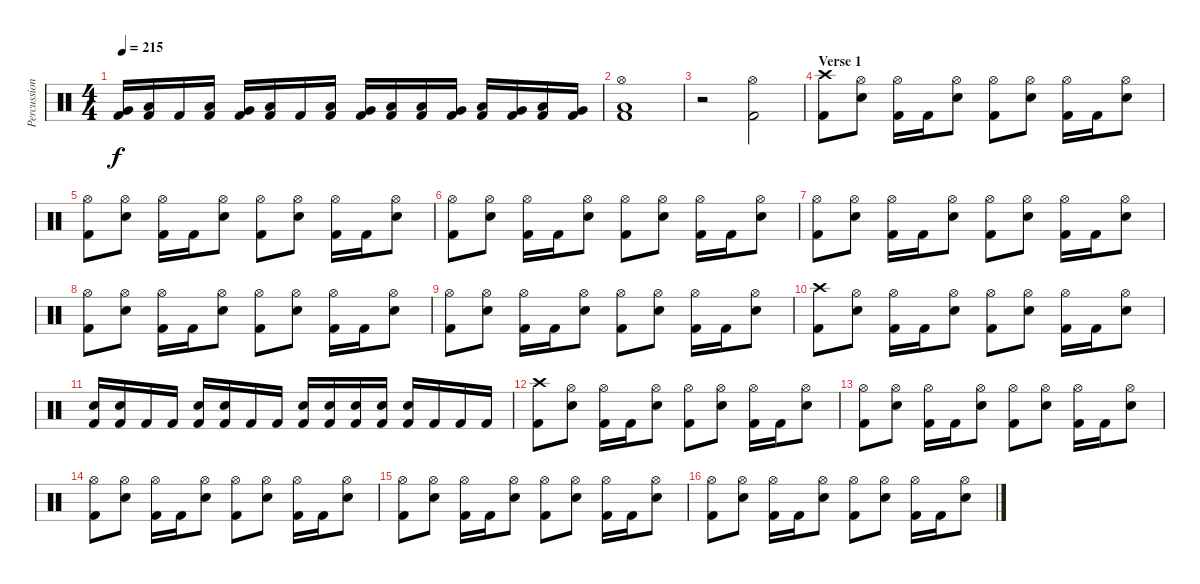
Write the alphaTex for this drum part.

\track ("Percussion" "Percussion") {instrument percussion}
\staff {score}
\articulation defaults
\ts (4 4)
\tempo 215
\clef neutral
\ks c
("Very Low Tom (hit)" "Kick (hit) 2").16{dy f} ("Low Floor Tom (hit)" "Kick (hit) 2").16 "Kick (hit) 2".16 ("Low Floor Tom (hit)" "Kick (hit) 2").16 ("Very Low Tom (hit)" "Kick (hit) 2").16 ("Low Floor Tom (hit)" "Kick (hit) 2").16 "Kick (hit) 2".16 ("Low Floor Tom (hit)" "Kick (hit) 2").16 ("Very Low Tom (hit)" "Kick (hit) 2").16 ("Low Floor Tom (hit)" "Kick (hit) 2").16 ("Low Floor Tom (hit)" "Kick (hit) 2").16 ("Very Low Tom (hit)" "Kick (hit) 2").16 ("Low Tom (hit)" "Kick (hit) 2").16 ("Very Low Tom (hit)" "Kick (hit) 2").16 ("Low Floor Tom (hit)" "Kick (hit) 2").16 ("Very Low Tom (hit)" "Kick (hit) 2").16 |
("Hi-Hat (open)" "Low Floor Tom (hit)" "Kick (hit) 2").1 |
r.2 ("Hi-Hat (open)" "Kick (hit) 2").2 |
\section ("" "Verse 1")
("Crash high (hit)" "Kick (hit) 2").8 ("Hi-Hat (open)" "Snare (hit) 2").8 ("Hi-Hat (open)" "Kick (hit) 2").16 "Kick (hit) 2".16 ("Hi-Hat (open)" "Snare (hit) 2").8 ("Hi-Hat (open)" "Kick (hit) 2").8 ("Hi-Hat (open)" "Snare (hit) 2").8 ("Hi-Hat (open)" "Kick (hit) 2").16 "Kick (hit) 2".16 ("Hi-Hat (open)" "Snare (hit) 2").8 |
("Hi-Hat (open)" "Kick (hit) 2").8 ("Hi-Hat (open)" "Snare (hit) 2").8 ("Hi-Hat (open)" "Kick (hit) 2").16 "Kick (hit) 2".16 ("Hi-Hat (open)" "Snare (hit) 2").8 ("Hi-Hat (open)" "Kick (hit) 2").8 ("Hi-Hat (open)" "Snare (hit) 2").8 ("Hi-Hat (open)" "Kick (hit) 2").16 "Kick (hit) 2".16 ("Hi-Hat (open)" "Snare (hit) 2").8 |
("Hi-Hat (open)" "Kick (hit) 2").8 ("Hi-Hat (open)" "Snare (hit) 2").8 ("Hi-Hat (open)" "Kick (hit) 2").16 "Kick (hit) 2".16 ("Hi-Hat (open)" "Snare (hit) 2").8 ("Hi-Hat (open)" "Kick (hit) 2").8 ("Hi-Hat (open)" "Snare (hit) 2").8 ("Hi-Hat (open)" "Kick (hit) 2").16 "Kick (hit) 2".16 ("Hi-Hat (open)" "Snare (hit) 2").8 |
("Hi-Hat (open)" "Kick (hit) 2").8 ("Hi-Hat (open)" "Snare (hit) 2").8 ("Hi-Hat (open)" "Kick (hit) 2").16 "Kick (hit) 2".16 ("Hi-Hat (open)" "Snare (hit) 2").8 ("Hi-Hat (open)" "Kick (hit) 2").8 ("Hi-Hat (open)" "Snare (hit) 2").8 ("Hi-Hat (open)" "Kick (hit) 2").16 "Kick (hit) 2".16 ("Hi-Hat (open)" "Snare (hit) 2").8 |
("Hi-Hat (open)" "Kick (hit) 2").8 ("Hi-Hat (open)" "Snare (hit) 2").8 ("Hi-Hat (open)" "Kick (hit) 2").16 "Kick (hit) 2".16 ("Hi-Hat (open)" "Snare (hit) 2").8 ("Hi-Hat (open)" "Kick (hit) 2").8 ("Hi-Hat (open)" "Snare (hit) 2").8 ("Hi-Hat (open)" "Kick (hit) 2").16 "Kick (hit) 2".16 ("Hi-Hat (open)" "Snare (hit) 2").8 |
("Hi-Hat (open)" "Kick (hit) 2").8 ("Hi-Hat (open)" "Snare (hit) 2").8 ("Hi-Hat (open)" "Kick (hit) 2").16 "Kick (hit) 2".16 ("Hi-Hat (open)" "Snare (hit) 2").8 ("Hi-Hat (open)" "Kick (hit) 2").8 ("Hi-Hat (open)" "Snare (hit) 2").8 ("Hi-Hat (open)" "Kick (hit) 2").16 "Kick (hit) 2".16 ("Hi-Hat (open)" "Snare (hit) 2").8 |
("Crash high (hit)" "Kick (hit) 2").8 ("Hi-Hat (open)" "Snare (hit) 2").8 ("Hi-Hat (open)" "Kick (hit) 2").16 "Kick (hit) 2".16 ("Hi-Hat (open)" "Snare (hit) 2").8 ("Hi-Hat (open)" "Kick (hit) 2").8 ("Hi-Hat (open)" "Snare (hit) 2").8 ("Hi-Hat (open)" "Kick (hit) 2").16 "Kick (hit) 2".16 ("Hi-Hat (open)" "Snare (hit) 2").8 |
("Snare (hit) 2" "Kick (hit) 2").16 ("Snare (hit) 2" "Kick (hit) 2").16 "Kick (hit) 2".16 "Kick (hit) 2".16 ("Snare (hit) 2" "Kick (hit) 2").16 ("Snare (hit) 2" "Kick (hit) 2").16 "Kick (hit) 2".16 "Kick (hit) 2".16 ("Snare (hit) 2" "Kick (hit) 2").16 ("Snare (hit) 2" "Kick (hit) 2").16 ("Snare (hit) 2" "Kick (hit) 2").16 ("Snare (hit) 2" "Kick (hit) 2").16 ("Snare (hit) 2" "Kick (hit) 2").16 "Kick (hit) 2".16 "Kick (hit) 2".16 "Kick (hit) 2".16 |
("Crash high (hit)" "Kick (hit) 2").8 ("Hi-Hat (open)" "Snare (hit) 2").8 ("Hi-Hat (open)" "Kick (hit) 2").16 "Kick (hit) 2".16 ("Hi-Hat (open)" "Snare (hit) 2").8 ("Hi-Hat (open)" "Kick (hit) 2").8 ("Hi-Hat (open)" "Snare (hit) 2").8 ("Hi-Hat (open)" "Kick (hit) 2").16 "Kick (hit) 2".16 ("Hi-Hat (open)" "Snare (hit) 2").8 |
("Hi-Hat (open)" "Kick (hit) 2").8 ("Hi-Hat (open)" "Snare (hit) 2").8 ("Hi-Hat (open)" "Kick (hit) 2").16 "Kick (hit) 2".16 ("Hi-Hat (open)" "Snare (hit) 2").8 ("Hi-Hat (open)" "Kick (hit) 2").8 ("Hi-Hat (open)" "Snare (hit) 2").8 ("Hi-Hat (open)" "Kick (hit) 2").16 "Kick (hit) 2".16 ("Hi-Hat (open)" "Snare (hit) 2").8 |
("Hi-Hat (open)" "Kick (hit) 2").8 ("Hi-Hat (open)" "Snare (hit) 2").8 ("Hi-Hat (open)" "Kick (hit) 2").16 "Kick (hit) 2".16 ("Hi-Hat (open)" "Snare (hit) 2").8 ("Hi-Hat (open)" "Kick (hit) 2").8 ("Hi-Hat (open)" "Snare (hit) 2").8 ("Hi-Hat (open)" "Kick (hit) 2").16 "Kick (hit) 2".16 ("Hi-Hat (open)" "Snare (hit) 2").8 |
("Hi-Hat (open)" "Kick (hit) 2").8 ("Hi-Hat (open)" "Snare (hit) 2").8 ("Hi-Hat (open)" "Kick (hit) 2").16 "Kick (hit) 2".16 ("Hi-Hat (open)" "Snare (hit) 2").8 ("Hi-Hat (open)" "Kick (hit) 2").8 ("Hi-Hat (open)" "Snare (hit) 2").8 ("Hi-Hat (open)" "Kick (hit) 2").16 "Kick (hit) 2".16 ("Hi-Hat (open)" "Snare (hit) 2").8 |
("Hi-Hat (open)" "Kick (hit) 2").8 ("Hi-Hat (open)" "Snare (hit) 2").8 ("Hi-Hat (open)" "Kick (hit) 2").16 "Kick (hit) 2".16 ("Hi-Hat (open)" "Snare (hit) 2").8 ("Hi-Hat (open)" "Kick (hit) 2").8 ("Hi-Hat (open)" "Snare (hit) 2").8 ("Hi-Hat (open)" "Kick (hit) 2").16 "Kick (hit) 2".16 ("Hi-Hat (open)" "Snare (hit) 2").8
